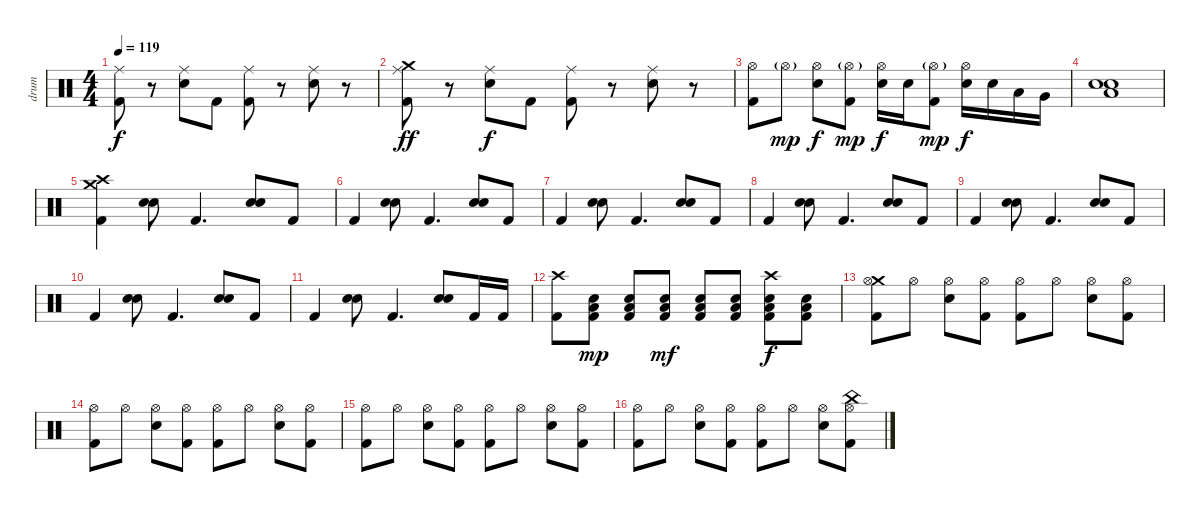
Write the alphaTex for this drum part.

\track ("drum" "drum") {instrument percussion}
\staff {score}
\articulation defaults
\ts (4 4)
\tempo 119
\clef neutral
\ks c
("Ride (middle)" "Kick (hit) 2").8{dy f} r.8 ("Ride (middle)" "Electric Snare (hit)").8 "Kick (hit) 2".8 ("Ride (middle)" "Kick (hit) 2").8 r.8 ("Ride (middle)" "Electric Snare (hit)").8 r.8 |
("Crash medium (hit)" "Ride (middle)" "Kick (hit) 2").8{dy ff} r.8 ("Ride (middle)" "Electric Snare (hit)").8{dy f} "Kick (hit) 2".8 ("Ride (middle)" "Kick (hit) 2").8 r.8 ("Ride (middle)" "Electric Snare (hit)").8 r.8 |
("Hi-Hat (open)" "Kick (hit) 2").8 "Hi-Hat (open)"{g}.8{dy mp} ("Hi-Hat (open)" "Electric Snare (hit)").8{dy f} ("Hi-Hat (open)"{g} "Kick (hit) 2").8{dy mp} ("Hi-Hat (open)" "Electric Snare (hit)").16{dy f} "Electric Snare (hit)".16 ("Hi-Hat (open)"{g} "Kick (hit) 2").8{dy mp} ("Hi-Hat (open)" "Electric Snare (hit)").16{dy f} "Electric Snare (hit)".16 "Low Tom (hit)".16 "Very Low Tom (hit)".16 |
("Low Floor Tom (hit)" "Electric Snare (hit)" "Electric Snare (hit)").1{bd 120} |
("Crash high (hit)" "Crash medium (hit)" "Kick (hit) 2").4 ("Electric Snare (hit)" "Electric Snare (hit)").8{bd 120} "Kick (hit) 2".4{d} ("Electric Snare (hit)" "Electric Snare (hit)").8{bd 120} "Kick (hit) 2".8 |
"Kick (hit) 2".4 ("Electric Snare (hit)" "Electric Snare (hit)").8{bd 120} "Kick (hit) 2".4{d} ("Electric Snare (hit)" "Electric Snare (hit)").8{bd 120} "Kick (hit) 2".8 |
"Kick (hit) 2".4 ("Electric Snare (hit)" "Electric Snare (hit)").8{bd 120} "Kick (hit) 2".4{d} ("Electric Snare (hit)" "Electric Snare (hit)").8{bd 120} "Kick (hit) 2".8 |
"Kick (hit) 2".4 ("Electric Snare (hit)" "Electric Snare (hit)").8{bd 120} "Kick (hit) 2".4{d} ("Electric Snare (hit)" "Electric Snare (hit)").8{bd 120} "Kick (hit) 2".8 |
"Kick (hit) 2".4 ("Electric Snare (hit)" "Electric Snare (hit)").8{bd 120} "Kick (hit) 2".4{d} ("Electric Snare (hit)" "Electric Snare (hit)").8{bd 120} "Kick (hit) 2".8 |
"Kick (hit) 2".4 ("Electric Snare (hit)" "Electric Snare (hit)").8{bd 120} "Kick (hit) 2".4{d} ("Electric Snare (hit)" "Electric Snare (hit)").8{bd 120} "Kick (hit) 2".8 |
"Kick (hit) 2".4 ("Electric Snare (hit)" "Electric Snare (hit)").8{bd 120} "Kick (hit) 2".4{d} ("Electric Snare (hit)" "Electric Snare (hit)").8{bd 120} "Kick (hit) 2".16 "Kick (hit) 2".16 |
("Crash high (hit)" "Kick (hit) 2").8 ("Electric Snare (hit)" "Low Floor Tom (hit)" "Kick (hit) 2").8{dy mp} ("Electric Snare (hit)" "Low Floor Tom (hit)" "Kick (hit) 2").8 ("Electric Snare (hit)" "Low Floor Tom (hit)" "Kick (hit) 2").8{dy mf} ("Electric Snare (hit)" "Low Floor Tom (hit)" "Kick (hit) 2").8 ("Electric Snare (hit)" "Low Floor Tom (hit)" "Kick (hit) 2").8 ("Crash high (hit)" "Electric Snare (hit)" "Low Floor Tom (hit)" "Kick (hit) 2").8{dy f} ("Electric Snare (hit)" "Low Floor Tom (hit)" "Kick (hit) 2").8 |
("Crash medium (hit)" "Hi-Hat (open)" "Kick (hit) 2").8 "Hi-Hat (open)".8 ("Hi-Hat (open)" "Electric Snare (hit)").8 ("Hi-Hat (open)" "Kick (hit) 2").8 ("Hi-Hat (open)" "Kick (hit) 2").8 "Hi-Hat (open)".8 ("Hi-Hat (open)" "Electric Snare (hit)").8 ("Hi-Hat (open)" "Kick (hit) 2").8 |
("Hi-Hat (open)" "Kick (hit) 2").8 "Hi-Hat (open)".8 ("Hi-Hat (open)" "Electric Snare (hit)").8 ("Hi-Hat (open)" "Kick (hit) 2").8 ("Hi-Hat (open)" "Kick (hit) 2").8 "Hi-Hat (open)".8 ("Hi-Hat (open)" "Electric Snare (hit)").8 ("Hi-Hat (open)" "Kick (hit) 2").8 |
("Hi-Hat (open)" "Kick (hit) 2").8 "Hi-Hat (open)".8 ("Hi-Hat (open)" "Electric Snare (hit)").8 ("Hi-Hat (open)" "Kick (hit) 2").8 ("Hi-Hat (open)" "Kick (hit) 2").8 "Hi-Hat (open)".8 ("Hi-Hat (open)" "Electric Snare (hit)").8 ("Hi-Hat (open)" "Kick (hit) 2").8 |
("Hi-Hat (open)" "Kick (hit) 2").8 "Hi-Hat (open)".8 ("Hi-Hat (open)" "Electric Snare (hit)").8 ("Hi-Hat (open)" "Kick (hit) 2").8 ("Hi-Hat (open)" "Kick (hit) 2").8 "Hi-Hat (open)".8 ("Hi-Hat (open)" "Electric Snare (hit)").8 ("China (hit)" "Hi-Hat (open)" "Kick (hit) 2").8
